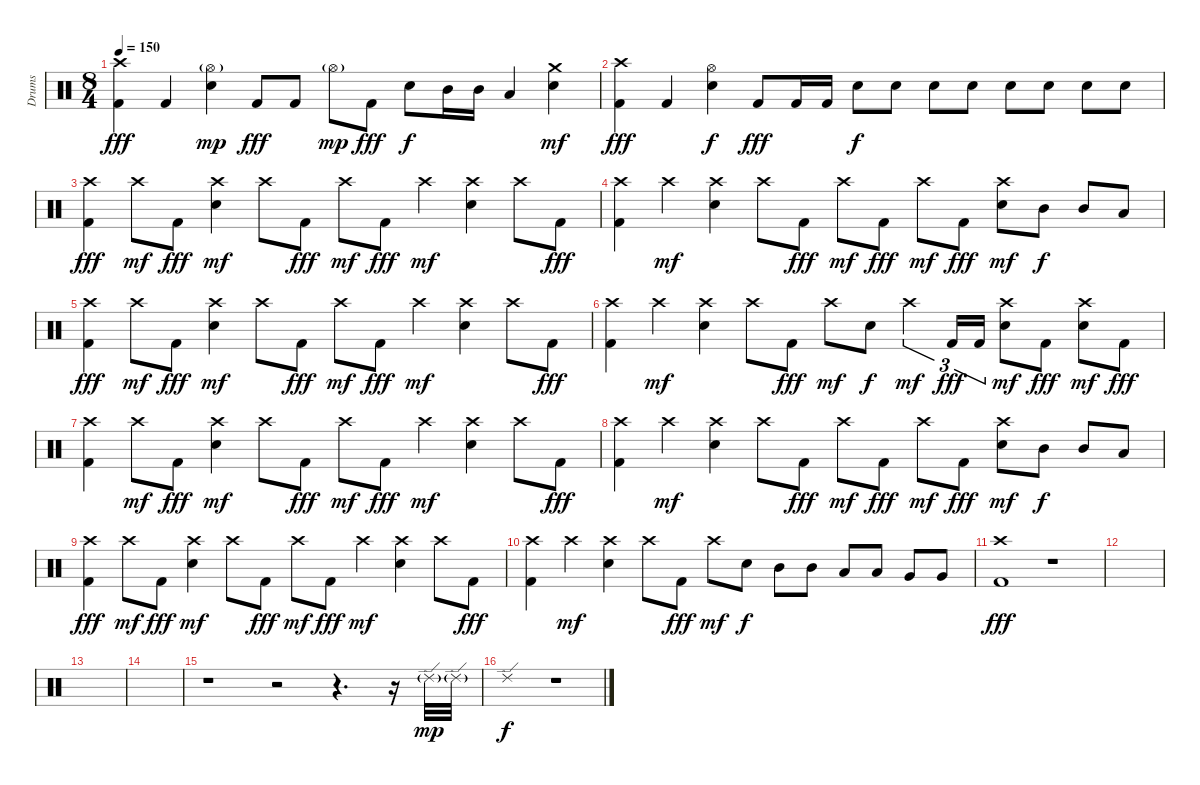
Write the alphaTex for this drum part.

\track ("Drums" "Drums") {instrument percussion}
\staff {score}
\articulation defaults
\ts (8 4)
\tempo 150
\clef neutral
\ks c
("Crash high (hit)" "Kick (hit) 2").4{dy fff} "Kick (hit) 2".4 ("Hi-Hat (open)"{g} "Snare (hit) 2").4{dy mp} "Kick (hit) 2".8{dy fff} "Kick (hit) 2".8 "Hi-Hat (open)"{g}.8{dy mp} "Kick (hit) 2".8{dy fff} "Snare (hit) 2".8{dy f} "Mid Tom (hit)".16 "Mid Tom (hit)".16 "Low Tom (hit)".4 ("Crash medium (hit)" "Snare (hit) 2").4{dy mf} |
("Crash high (hit)" "Kick (hit) 2").4{dy fff} "Kick (hit) 2".4 ("Hi-Hat (open)" "Snare (hit) 2").4{dy f} "Kick (hit) 2".8{dy fff} "Kick (hit) 2".16 "Kick (hit) 2".16 "Snare (hit) 2".8{dy f} "Snare (hit) 2".8 "Snare (hit) 2".8 "Snare (hit) 2".8 "Snare (hit) 2".8 "Snare (hit) 2".8 "Snare (hit) 2".8 "Snare (hit) 2".8 |
("Crash high (hit)" "Kick (hit) 2").4{dy fff} "Crash high (hit)".8{dy mf} "Kick (hit) 2".8{dy fff} ("Crash high (hit)" "Snare (hit) 2").4{dy mf} "Crash high (hit)".8 "Kick (hit) 2".8{dy fff} "Crash high (hit)".8{dy mf} "Kick (hit) 2".8{dy fff} "Crash high (hit)".4{dy mf} ("Crash high (hit)" "Snare (hit) 2").4 "Crash high (hit)".8 "Kick (hit) 2".8{dy fff} |
("Crash high (hit)" "Kick (hit) 2").4 "Crash high (hit)".4{dy mf} ("Crash high (hit)" "Snare (hit) 2").4 "Crash high (hit)".8 "Kick (hit) 2".8{dy fff} "Crash high (hit)".8{dy mf} "Kick (hit) 2".8{dy fff} "Crash high (hit)".8{dy mf} "Kick (hit) 2".8{dy fff} ("Crash high (hit)" "Snare (hit) 2").8{dy mf} "Mid Tom (hit)".8{dy f} "Mid Tom (hit)".8 "Low Tom (hit)".8 |
("Crash high (hit)" "Kick (hit) 2").4{dy fff} "Crash high (hit)".8{dy mf} "Kick (hit) 2".8{dy fff} ("Crash high (hit)" "Snare (hit) 2").4{dy mf} "Crash high (hit)".8 "Kick (hit) 2".8{dy fff} "Crash high (hit)".8{dy mf} "Kick (hit) 2".8{dy fff} "Crash high (hit)".4{dy mf} ("Crash high (hit)" "Snare (hit) 2").4 "Crash high (hit)".8 "Kick (hit) 2".8{dy fff} |
("Crash high (hit)" "Kick (hit) 2").4 "Crash high (hit)".4{dy mf} ("Crash high (hit)" "Snare (hit) 2").4 "Crash high (hit)".8 "Kick (hit) 2".8{dy fff} "Crash high (hit)".8{dy mf} "Snare (hit) 2".8{dy f} "Crash high (hit)".4{tu (3 2) dy mf} "Kick (hit) 2".16{tu (3 2) dy fff} "Kick (hit) 2".16{tu (3 2)} ("Crash high (hit)" "Snare (hit) 2").8{dy mf} "Kick (hit) 2".8{dy fff} ("Crash high (hit)" "Snare (hit) 2").8{dy mf} "Kick (hit) 2".8{dy fff} |
("Crash high (hit)" "Kick (hit) 2").4 "Crash high (hit)".8{dy mf} "Kick (hit) 2".8{dy fff} ("Crash high (hit)" "Snare (hit) 2").4{dy mf} "Crash high (hit)".8 "Kick (hit) 2".8{dy fff} "Crash high (hit)".8{dy mf} "Kick (hit) 2".8{dy fff} "Crash high (hit)".4{dy mf} ("Crash high (hit)" "Snare (hit) 2").4 "Crash high (hit)".8 "Kick (hit) 2".8{dy fff} |
("Crash high (hit)" "Kick (hit) 2").4 "Crash high (hit)".4{dy mf} ("Crash high (hit)" "Snare (hit) 2").4 "Crash high (hit)".8 "Kick (hit) 2".8{dy fff} "Crash high (hit)".8{dy mf} "Kick (hit) 2".8{dy fff} "Crash high (hit)".8{dy mf} "Kick (hit) 2".8{dy fff} ("Crash high (hit)" "Snare (hit) 2").8{dy mf} "Mid Tom (hit)".8{dy f} "Mid Tom (hit)".8 "Low Tom (hit)".8 |
("Crash high (hit)" "Kick (hit) 2").4{dy fff} "Crash high (hit)".8{dy mf} "Kick (hit) 2".8{dy fff} ("Crash high (hit)" "Snare (hit) 2").4{dy mf} "Crash high (hit)".8 "Kick (hit) 2".8{dy fff} "Crash high (hit)".8{dy mf} "Kick (hit) 2".8{dy fff} "Crash high (hit)".4{dy mf} ("Crash high (hit)" "Snare (hit) 2").4 "Crash high (hit)".8 "Kick (hit) 2".8{dy fff} |
("Crash high (hit)" "Kick (hit) 2").4 "Crash high (hit)".4{dy mf} ("Crash high (hit)" "Snare (hit) 2").4 "Crash high (hit)".8 "Kick (hit) 2".8{dy fff} "Crash high (hit)".8{dy mf} "Snare (hit) 2".8{dy f} "Mid Tom (hit)".8 "Mid Tom (hit)".8 "Low Tom (hit)".8 "Low Tom (hit)".8 "Very Low Tom (hit)".8 "Very Low Tom (hit)".8 |
("Crash high (hit)" "Kick (hit) 2").1{dy fff} r.1 |
|
|
|
r.1 r.2 r.4{d} r.16 "Ride (edge) 2"{g}.32{dy mp} "Ride (edge) 2"{g}.32 |
"Ride (edge) 2".1{dy f} r.1
